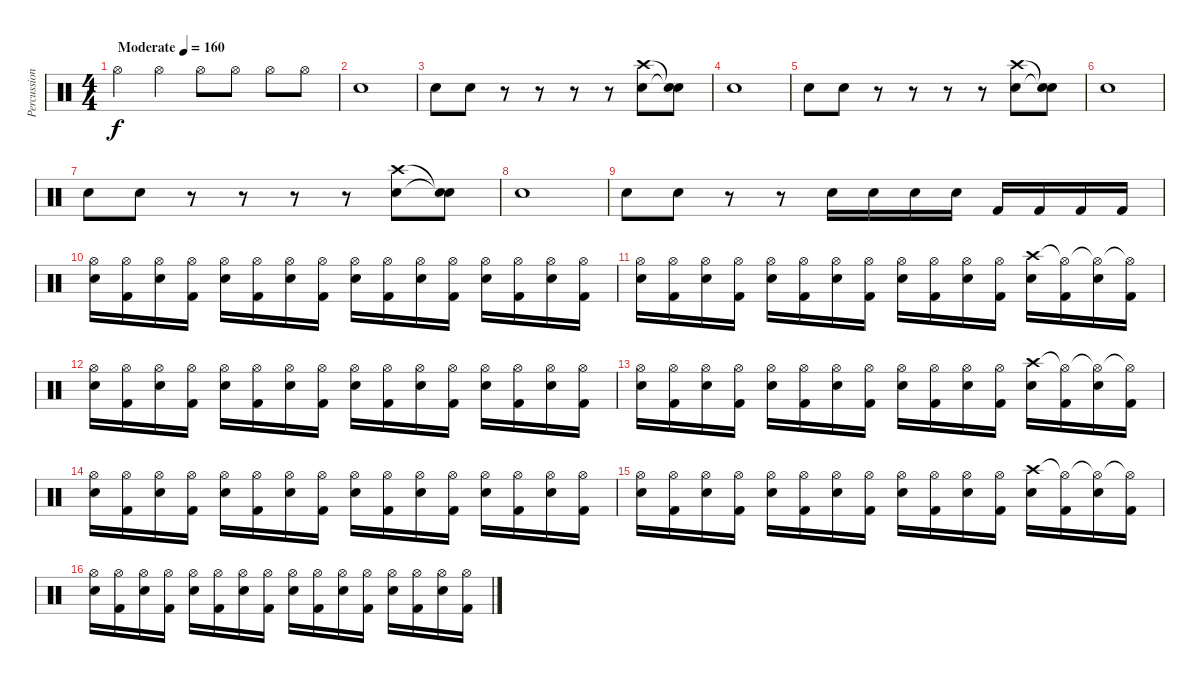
\track ("Percussion" "Percussion") {instrument percussion}
\staff {score}
\articulation defaults
\ts (4 4)
\tempo (160 "Moderate")
\clef neutral
\ks c "Hi-Hat (open)".4{dy f} "Hi-Hat (open)".4 "Hi-Hat (open)".8 "Hi-Hat (open)".8 "Hi-Hat (open)".8 "Hi-Hat (open)".8
|
"Snare (hit) 2".1 |
"Snare (hit) 2".8 "Snare (hit) 2".8 r.8 r.8 r.8 r.8 ("Snare (hit) 2" "Crash high (hit)").8 ("Snare (hit)"{t} "Snare (hit)"{t}).8 |
"Snare (hit) 2".1 |
"Snare (hit) 2".8 "Snare (hit) 2".8 r.8 r.8 r.8 r.8 ("Snare (hit) 2" "Crash high (hit)").8 ("Snare (hit)"{t} "Snare (hit)"{t}).8 |
"Snare (hit) 2".1 |
"Snare (hit) 2".8 "Snare (hit) 2".8 r.8 r.8 r.8 r.8 ("Snare (hit) 2" "Crash high (hit)").8 ("Snare (hit)"{t} "Snare (hit)"{t}).8 |
"Snare (hit) 2".1 |
"Snare (hit) 2".8 "Snare (hit) 2".8 r.8 r.8 "Snare (hit) 2".16 "Snare (hit) 2".16 "Snare (hit) 2".16 "Snare (hit) 2".16 "Kick (hit) 2".16 "Kick (hit) 2".16 "Kick (hit) 2".16 "Kick (hit) 2".16 |
("Hi-Hat (open)" "Snare (hit) 2").16 ("Hi-Hat (open)" "Kick (hit) 2").16 ("Hi-Hat (open)" "Snare (hit) 2").16 ("Hi-Hat (open)" "Kick (hit) 2").16 ("Hi-Hat (open)" "Snare (hit) 2").16 ("Hi-Hat (open)" "Kick (hit) 2").16 ("Hi-Hat (open)" "Snare (hit) 2").16 ("Hi-Hat (open)" "Kick (hit) 2").16 ("Hi-Hat (open)" "Snare (hit) 2").16 ("Hi-Hat (open)" "Kick (hit) 2").16 ("Hi-Hat (open)" "Snare (hit) 2").16 ("Hi-Hat (open)" "Kick (hit) 2").16 ("Hi-Hat (open)" "Snare (hit) 2").16 ("Hi-Hat (open)" "Kick (hit) 2").16 ("Hi-Hat (open)" "Snare (hit) 2").16 ("Hi-Hat (open)" "Kick (hit) 2").16 |
("Hi-Hat (open)" "Snare (hit) 2").16 ("Hi-Hat (open)" "Kick (hit) 2").16 ("Hi-Hat (open)" "Snare (hit) 2").16 ("Hi-Hat (open)" "Kick (hit) 2").16 ("Hi-Hat (open)" "Snare (hit) 2").16 ("Hi-Hat (open)" "Kick (hit) 2").16 ("Hi-Hat (open)" "Snare (hit) 2").16 ("Hi-Hat (open)" "Kick (hit) 2").16 ("Hi-Hat (open)" "Snare (hit) 2").16 ("Hi-Hat (open)" "Kick (hit) 2").16 ("Hi-Hat (open)" "Snare (hit) 2").16 ("Hi-Hat (open)" "Kick (hit) 2").16 ("Crash high (hit)" "Snare (hit) 2").16 ("Hi-Hat (open)"{t} "Kick (hit) 2").16 ("Hi-Hat (open)"{t} "Snare (hit) 2").16 ("Hi-Hat (open)"{t} "Kick (hit) 2").16 |
("Hi-Hat (open)" "Snare (hit) 2").16 ("Hi-Hat (open)" "Kick (hit) 2").16 ("Hi-Hat (open)" "Snare (hit) 2").16 ("Hi-Hat (open)" "Kick (hit) 2").16 ("Hi-Hat (open)" "Snare (hit) 2").16 ("Hi-Hat (open)" "Kick (hit) 2").16 ("Hi-Hat (open)" "Snare (hit) 2").16 ("Hi-Hat (open)" "Kick (hit) 2").16 ("Hi-Hat (open)" "Snare (hit) 2").16 ("Hi-Hat (open)" "Kick (hit) 2").16 ("Hi-Hat (open)" "Snare (hit) 2").16 ("Hi-Hat (open)" "Kick (hit) 2").16 ("Hi-Hat (open)" "Snare (hit) 2").16 ("Hi-Hat (open)" "Kick (hit) 2").16 ("Hi-Hat (open)" "Snare (hit) 2").16 ("Hi-Hat (open)" "Kick (hit) 2").16 |
("Hi-Hat (open)" "Snare (hit) 2").16 ("Hi-Hat (open)" "Kick (hit) 2").16 ("Hi-Hat (open)" "Snare (hit) 2").16 ("Hi-Hat (open)" "Kick (hit) 2").16 ("Hi-Hat (open)" "Snare (hit) 2").16 ("Hi-Hat (open)" "Kick (hit) 2").16 ("Hi-Hat (open)" "Snare (hit) 2").16 ("Hi-Hat (open)" "Kick (hit) 2").16 ("Hi-Hat (open)" "Snare (hit) 2").16 ("Hi-Hat (open)" "Kick (hit) 2").16 ("Hi-Hat (open)" "Snare (hit) 2").16 ("Hi-Hat (open)" "Kick (hit) 2").16 ("Crash high (hit)" "Snare (hit) 2").16 ("Hi-Hat (open)"{t} "Kick (hit) 2").16 ("Hi-Hat (open)"{t} "Snare (hit) 2").16 ("Hi-Hat (open)"{t} "Kick (hit) 2").16 |
("Hi-Hat (open)" "Snare (hit) 2").16 ("Hi-Hat (open)" "Kick (hit) 2").16 ("Hi-Hat (open)" "Snare (hit) 2").16 ("Hi-Hat (open)" "Kick (hit) 2").16 ("Hi-Hat (open)" "Snare (hit) 2").16 ("Hi-Hat (open)" "Kick (hit) 2").16 ("Hi-Hat (open)" "Snare (hit) 2").16 ("Hi-Hat (open)" "Kick (hit) 2").16 ("Hi-Hat (open)" "Snare (hit) 2").16 ("Hi-Hat (open)" "Kick (hit) 2").16 ("Hi-Hat (open)" "Snare (hit) 2").16 ("Hi-Hat (open)" "Kick (hit) 2").16 ("Hi-Hat (open)" "Snare (hit) 2").16 ("Hi-Hat (open)" "Kick (hit) 2").16 ("Hi-Hat (open)" "Snare (hit) 2").16 ("Hi-Hat (open)" "Kick (hit) 2").16 |
("Hi-Hat (open)" "Snare (hit) 2").16 ("Hi-Hat (open)" "Kick (hit) 2").16 ("Hi-Hat (open)" "Snare (hit) 2").16 ("Hi-Hat (open)" "Kick (hit) 2").16 ("Hi-Hat (open)" "Snare (hit) 2").16 ("Hi-Hat (open)" "Kick (hit) 2").16 ("Hi-Hat (open)" "Snare (hit) 2").16 ("Hi-Hat (open)" "Kick (hit) 2").16 ("Hi-Hat (open)" "Snare (hit) 2").16 ("Hi-Hat (open)" "Kick (hit) 2").16 ("Hi-Hat (open)" "Snare (hit) 2").16 ("Hi-Hat (open)" "Kick (hit) 2").16 ("Crash high (hit)" "Snare (hit) 2").16 ("Hi-Hat (open)"{t} "Kick (hit) 2").16 ("Hi-Hat (open)"{t} "Snare (hit) 2").16 ("Hi-Hat (open)"{t} "Kick (hit) 2").16 |
("Hi-Hat (open)" "Snare (hit) 2").16 ("Hi-Hat (open)" "Kick (hit) 2").16 ("Hi-Hat (open)" "Snare (hit) 2").16 ("Hi-Hat (open)" "Kick (hit) 2").16 ("Hi-Hat (open)" "Snare (hit) 2").16 ("Hi-Hat (open)" "Kick (hit) 2").16 ("Hi-Hat (open)" "Snare (hit) 2").16 ("Hi-Hat (open)" "Kick (hit) 2").16 ("Hi-Hat (open)" "Snare (hit) 2").16 ("Hi-Hat (open)" "Kick (hit) 2").16 ("Hi-Hat (open)" "Snare (hit) 2").16 ("Hi-Hat (open)" "Kick (hit) 2").16 ("Hi-Hat (open)" "Snare (hit) 2").16 ("Hi-Hat (open)" "Kick (hit) 2").16 ("Hi-Hat (open)" "Snare (hit) 2").16 ("Hi-Hat (open)" "Kick (hit) 2").16
